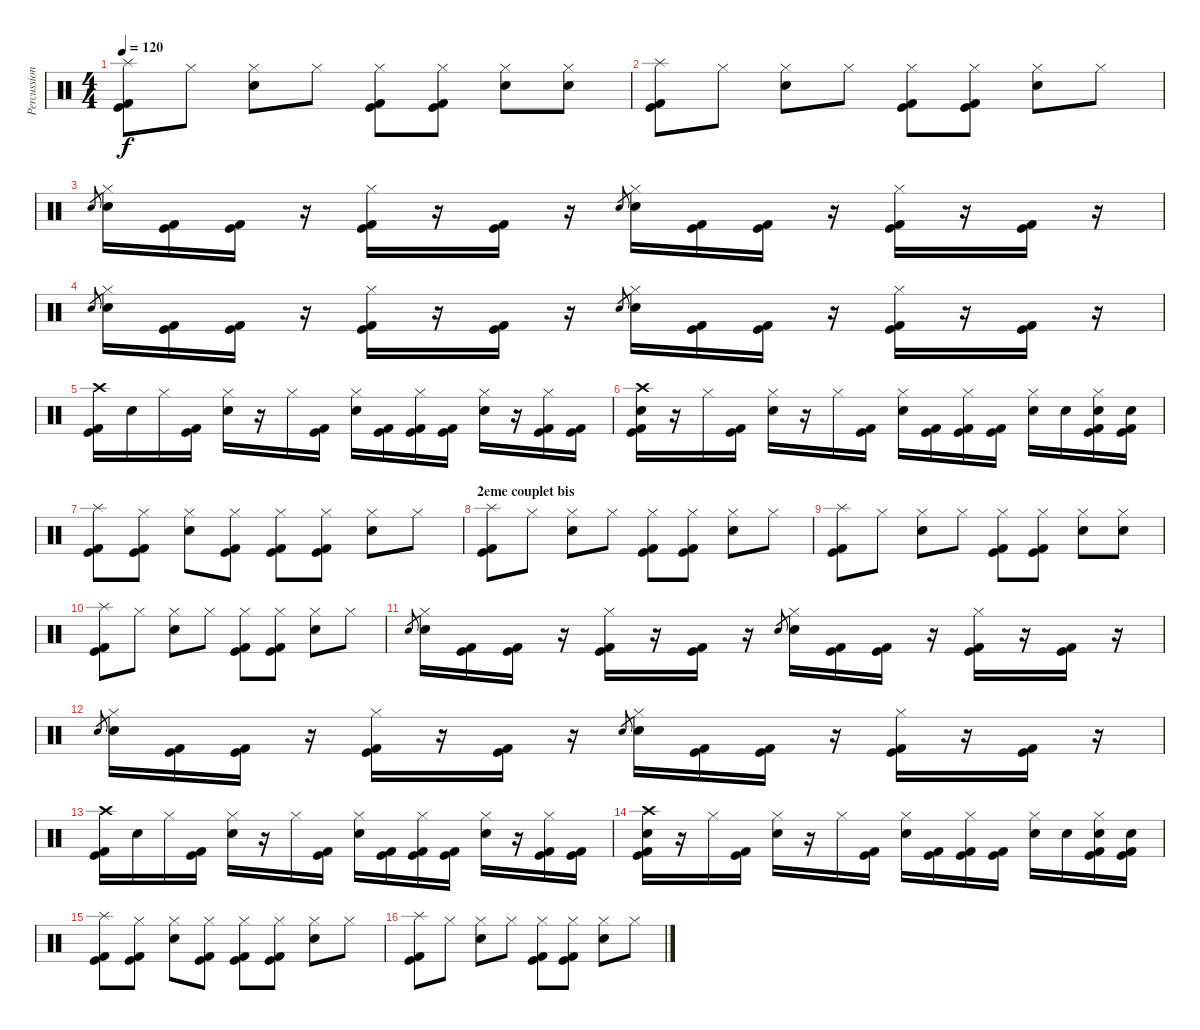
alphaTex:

\track ("Percussions" "Percussion") {instrument percussion}
\staff {score}
\articulation defaults
\ts (4 4)
\tempo 120
\clef neutral
\ks c
("Splash (hit)" "Kick (hit) 2" "Kick (hit)").8{dy f} "Hi-Hat (closed)".8 ("Hi-Hat (closed)" "Electric Snare (hit)").8 "Hi-Hat (closed)".8 ("Hi-Hat (closed)" "Kick (hit) 2" "Kick (hit)").8 ("Hi-Hat (closed)" "Kick (hit) 2" "Kick (hit)").8 ("Hi-Hat (closed)" "Electric Snare (hit)").8 ("Hi-Hat (closed)" "Electric Snare (hit)").8 |
("Splash (hit)" "Kick (hit) 2" "Kick (hit)").8 "Hi-Hat (closed)".8 ("Hi-Hat (closed)" "Electric Snare (hit)").8 "Hi-Hat (closed)".8 ("Hi-Hat (closed)" "Kick (hit) 2" "Kick (hit)").8 ("Hi-Hat (closed)" "Kick (hit) 2" "Kick (hit)").8 ("Hi-Hat (closed)" "Electric Snare (hit)").8 "Hi-Hat (closed)".8 |
"Electric Snare (hit)".8{gr} ("Hi-Hat (closed)" "Electric Snare (hit)").16 ("Kick (hit) 2" "Kick (hit)").16 ("Kick (hit) 2" "Kick (hit)").16 r.16 ("Hi-Hat (closed)" "Kick (hit) 2" "Kick (hit)").16 r.16 ("Kick (hit) 2" "Kick (hit)").16 r.16 "Electric Snare (hit)".8{gr} ("Hi-Hat (closed)" "Electric Snare (hit)").16 ("Kick (hit) 2" "Kick (hit)").16 ("Kick (hit) 2" "Kick (hit)").16 r.16 ("Hi-Hat (closed)" "Kick (hit) 2" "Kick (hit)").16 r.16 ("Kick (hit) 2" "Kick (hit)").16 r.16 |
"Electric Snare (hit)".8{gr} ("Hi-Hat (closed)" "Electric Snare (hit)").16 ("Kick (hit) 2" "Kick (hit)").16 ("Kick (hit) 2" "Kick (hit)").16 r.16 ("Hi-Hat (closed)" "Kick (hit) 2" "Kick (hit)").16 r.16 ("Kick (hit) 2" "Kick (hit)").16 r.16 "Electric Snare (hit)".8{gr} ("Hi-Hat (closed)" "Electric Snare (hit)").16 ("Kick (hit) 2" "Kick (hit)").16 ("Kick (hit) 2" "Kick (hit)").16 r.16 ("Hi-Hat (closed)" "Kick (hit) 2" "Kick (hit)").16 r.16 ("Kick (hit) 2" "Kick (hit)").16 r.16 |
("Crash high (hit)" "Kick (hit) 2" "Kick (hit)").16 "Electric Snare (hit)".16 "Hi-Hat (closed)".16 ("Kick (hit)" "Kick (hit) 2").16 ("Hi-Hat (closed)" "Electric Snare (hit)").16 r.16 "Hi-Hat (closed)".16 ("Kick (hit) 2" "Kick (hit)").16 ("Hi-Hat (closed)" "Electric Snare (hit)").16 ("Kick (hit) 2" "Kick (hit)").16 ("Hi-Hat (closed)" "Kick (hit) 2" "Kick (hit)").16 ("Kick (hit) 2" "Kick (hit)").16 ("Hi-Hat (closed)" "Electric Snare (hit)").16 r.16 ("Hi-Hat (closed)" "Kick (hit) 2" "Kick (hit)").16 ("Kick (hit) 2" "Kick (hit)").16 |
("Crash high (hit)" "Electric Snare (hit)" "Kick (hit) 2" "Kick (hit)").16 r.16 "Hi-Hat (closed)".16 ("Kick (hit)" "Kick (hit) 2").16 ("Hi-Hat (closed)" "Electric Snare (hit)").16 r.16 "Hi-Hat (closed)".16 ("Kick (hit) 2" "Kick (hit)").16 ("Hi-Hat (closed)" "Electric Snare (hit)").16 ("Kick (hit) 2" "Kick (hit)").16 ("Hi-Hat (closed)" "Kick (hit) 2" "Kick (hit)").16 ("Kick (hit) 2" "Kick (hit)").16 ("Hi-Hat (closed)" "Electric Snare (hit)").16 "Electric Snare (hit)".16 ("Hi-Hat (closed)" "Electric Snare (hit)" "Kick (hit) 2" "Kick (hit)").16 ("Electric Snare (hit)" "Kick (hit) 2" "Kick (hit)").16 |
("Splash (hit)" "Kick (hit) 2" "Kick (hit)").8 ("Hi-Hat (closed)" "Kick (hit) 2" "Kick (hit)").8 ("Hi-Hat (closed)" "Electric Snare (hit)").8 ("Hi-Hat (closed)" "Kick (hit) 2" "Kick (hit)").8 ("Hi-Hat (closed)" "Kick (hit) 2" "Kick (hit)").8 ("Hi-Hat (closed)" "Kick (hit) 2" "Kick (hit)").8 ("Hi-Hat (closed)" "Electric Snare (hit)").8 "Hi-Hat (closed)".8 |
\section ("" "2eme couplet bis")
("Splash (hit)" "Kick (hit) 2" "Kick (hit)").8 "Hi-Hat (closed)".8 ("Hi-Hat (closed)" "Electric Snare (hit)").8 "Hi-Hat (closed)".8 ("Hi-Hat (closed)" "Kick (hit) 2" "Kick (hit)").8 ("Hi-Hat (closed)" "Kick (hit) 2" "Kick (hit)").8 ("Hi-Hat (closed)" "Electric Snare (hit)").8 "Hi-Hat (closed)".8 |
("Splash (hit)" "Kick (hit) 2" "Kick (hit)").8 "Hi-Hat (closed)".8 ("Hi-Hat (closed)" "Electric Snare (hit)").8 "Hi-Hat (closed)".8 ("Hi-Hat (closed)" "Kick (hit) 2" "Kick (hit)").8 ("Hi-Hat (closed)" "Kick (hit) 2" "Kick (hit)").8 ("Hi-Hat (closed)" "Electric Snare (hit)").8 ("Hi-Hat (closed)" "Electric Snare (hit)").8 |
("Splash (hit)" "Kick (hit) 2" "Kick (hit)").8 "Hi-Hat (closed)".8 ("Hi-Hat (closed)" "Electric Snare (hit)").8 "Hi-Hat (closed)".8 ("Hi-Hat (closed)" "Kick (hit) 2" "Kick (hit)").8 ("Hi-Hat (closed)" "Kick (hit) 2" "Kick (hit)").8 ("Hi-Hat (closed)" "Electric Snare (hit)").8 "Hi-Hat (closed)".8 |
"Electric Snare (hit)".8{gr} ("Hi-Hat (closed)" "Electric Snare (hit)").16 ("Kick (hit) 2" "Kick (hit)").16 ("Kick (hit) 2" "Kick (hit)").16 r.16 ("Hi-Hat (closed)" "Kick (hit) 2" "Kick (hit)").16 r.16 ("Kick (hit) 2" "Kick (hit)").16 r.16 "Electric Snare (hit)".8{gr} ("Hi-Hat (closed)" "Electric Snare (hit)").16 ("Kick (hit) 2" "Kick (hit)").16 ("Kick (hit) 2" "Kick (hit)").16 r.16 ("Hi-Hat (closed)" "Kick (hit) 2" "Kick (hit)").16 r.16 ("Kick (hit) 2" "Kick (hit)").16 r.16 |
"Electric Snare (hit)".8{gr} ("Hi-Hat (closed)" "Electric Snare (hit)").16 ("Kick (hit) 2" "Kick (hit)").16 ("Kick (hit) 2" "Kick (hit)").16 r.16 ("Hi-Hat (closed)" "Kick (hit) 2" "Kick (hit)").16 r.16 ("Kick (hit) 2" "Kick (hit)").16 r.16 "Electric Snare (hit)".8{gr} ("Hi-Hat (closed)" "Electric Snare (hit)").16 ("Kick (hit) 2" "Kick (hit)").16 ("Kick (hit) 2" "Kick (hit)").16 r.16 ("Hi-Hat (closed)" "Kick (hit) 2" "Kick (hit)").16 r.16 ("Kick (hit) 2" "Kick (hit)").16 r.16 |
("Crash high (hit)" "Kick (hit) 2" "Kick (hit)").16 "Electric Snare (hit)".16 "Hi-Hat (closed)".16 ("Kick (hit)" "Kick (hit) 2").16 ("Hi-Hat (closed)" "Electric Snare (hit)").16 r.16 "Hi-Hat (closed)".16 ("Kick (hit) 2" "Kick (hit)").16 ("Hi-Hat (closed)" "Electric Snare (hit)").16 ("Kick (hit) 2" "Kick (hit)").16 ("Hi-Hat (closed)" "Kick (hit) 2" "Kick (hit)").16 ("Kick (hit) 2" "Kick (hit)").16 ("Hi-Hat (closed)" "Electric Snare (hit)").16 r.16 ("Hi-Hat (closed)" "Kick (hit) 2" "Kick (hit)").16 ("Kick (hit) 2" "Kick (hit)").16 |
("Crash high (hit)" "Electric Snare (hit)" "Kick (hit) 2" "Kick (hit)").16 r.16 "Hi-Hat (closed)".16 ("Kick (hit)" "Kick (hit) 2").16 ("Hi-Hat (closed)" "Electric Snare (hit)").16 r.16 "Hi-Hat (closed)".16 ("Kick (hit) 2" "Kick (hit)").16 ("Hi-Hat (closed)" "Electric Snare (hit)").16 ("Kick (hit) 2" "Kick (hit)").16 ("Hi-Hat (closed)" "Kick (hit) 2" "Kick (hit)").16 ("Kick (hit) 2" "Kick (hit)").16 ("Hi-Hat (closed)" "Electric Snare (hit)").16 "Electric Snare (hit)".16 ("Hi-Hat (closed)" "Electric Snare (hit)" "Kick (hit) 2" "Kick (hit)").16 ("Electric Snare (hit)" "Kick (hit) 2" "Kick (hit)").16 |
("Splash (hit)" "Kick (hit) 2" "Kick (hit)").8 ("Hi-Hat (closed)" "Kick (hit) 2" "Kick (hit)").8 ("Hi-Hat (closed)" "Electric Snare (hit)").8 ("Hi-Hat (closed)" "Kick (hit) 2" "Kick (hit)").8 ("Hi-Hat (closed)" "Kick (hit) 2" "Kick (hit)").8 ("Hi-Hat (closed)" "Kick (hit) 2" "Kick (hit)").8 ("Hi-Hat (closed)" "Electric Snare (hit)").8 "Hi-Hat (closed)".8 |
("Splash (hit)" "Kick (hit) 2" "Kick (hit)").8 "Hi-Hat (closed)".8 ("Hi-Hat (closed)" "Electric Snare (hit)").8 "Hi-Hat (closed)".8 ("Hi-Hat (closed)" "Kick (hit) 2" "Kick (hit)").8 ("Hi-Hat (closed)" "Kick (hit) 2" "Kick (hit)").8 ("Hi-Hat (closed)" "Electric Snare (hit)").8 "Hi-Hat (closed)".8
